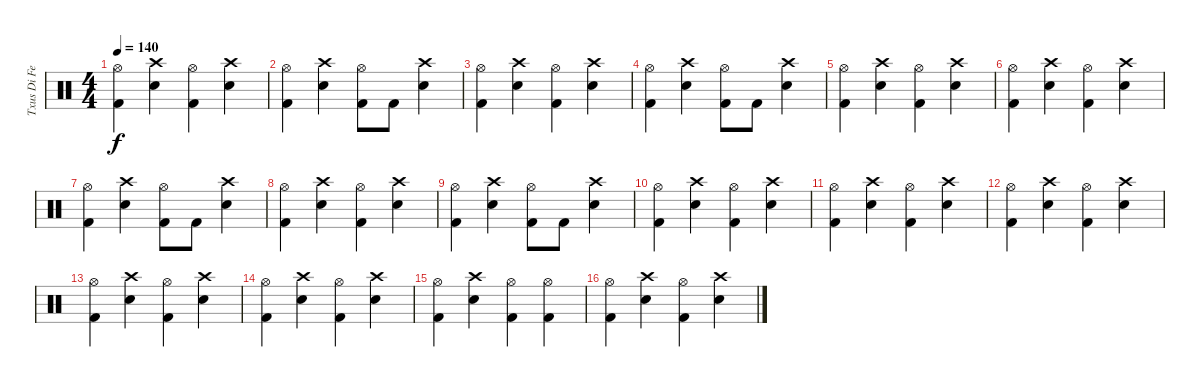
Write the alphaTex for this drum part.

\track ("Txus Di Fellatio" "Txus Di Fe") {instrument percussion}
\staff {score}
\articulation defaults
\ts (4 4)
\tempo 140
\clef neutral
\ks c
("Hi-Hat (open)" "Kick (hit) 2").4{dy f} ("Crash high (hit)" "Electric Snare (hit)").4 ("Hi-Hat (open)" "Kick (hit) 2").4 ("Crash high (hit)" "Electric Snare (hit)").4 |
("Hi-Hat (open)" "Kick (hit) 2").4 ("Crash high (hit)" "Electric Snare (hit)").4 ("Hi-Hat (open)" "Kick (hit) 2").8 "Kick (hit) 2".8 ("Crash high (hit)" "Electric Snare (hit)").4 |
("Hi-Hat (open)" "Kick (hit) 2").4 ("Crash high (hit)" "Electric Snare (hit)").4 ("Hi-Hat (open)" "Kick (hit) 2").4 ("Crash high (hit)" "Electric Snare (hit)").4 |
("Hi-Hat (open)" "Kick (hit) 2").4 ("Crash high (hit)" "Electric Snare (hit)").4 ("Hi-Hat (open)" "Kick (hit) 2").8 "Kick (hit) 2".8 ("Crash high (hit)" "Electric Snare (hit)").4 |
("Hi-Hat (open)" "Kick (hit) 2").4 ("Crash high (hit)" "Electric Snare (hit)").4 ("Hi-Hat (open)" "Kick (hit) 2").4 ("Crash high (hit)" "Electric Snare (hit)").4 |
("Hi-Hat (open)" "Kick (hit) 2").4 ("Crash high (hit)" "Electric Snare (hit)").4 ("Hi-Hat (open)" "Kick (hit) 2").4 ("Crash high (hit)" "Electric Snare (hit)").4 |
("Hi-Hat (open)" "Kick (hit) 2").4 ("Crash high (hit)" "Electric Snare (hit)").4 ("Hi-Hat (open)" "Kick (hit) 2").8 "Kick (hit) 2".8 ("Crash high (hit)" "Electric Snare (hit)").4 |
("Hi-Hat (open)" "Kick (hit) 2").4 ("Crash high (hit)" "Electric Snare (hit)").4 ("Hi-Hat (open)" "Kick (hit) 2").4 ("Crash high (hit)" "Electric Snare (hit)").4 |
("Hi-Hat (open)" "Kick (hit) 2").4 ("Crash high (hit)" "Electric Snare (hit)").4 ("Hi-Hat (open)" "Kick (hit) 2").8 "Kick (hit) 2".8 ("Crash high (hit)" "Electric Snare (hit)").4 |
("Hi-Hat (open)" "Kick (hit) 2").4 ("Crash high (hit)" "Electric Snare (hit)").4 ("Hi-Hat (open)" "Kick (hit) 2").4 ("Crash high (hit)" "Electric Snare (hit)").4 |
("Hi-Hat (open)" "Kick (hit) 2").4 ("Crash high (hit)" "Electric Snare (hit)").4 ("Hi-Hat (open)" "Kick (hit) 2").4 ("Crash high (hit)" "Electric Snare (hit)").4 |
("Hi-Hat (open)" "Kick (hit) 2").4 ("Crash high (hit)" "Electric Snare (hit)").4 ("Hi-Hat (open)" "Kick (hit) 2").4 ("Crash high (hit)" "Electric Snare (hit)").4 |
("Hi-Hat (open)" "Kick (hit) 2").4 ("Crash high (hit)" "Electric Snare (hit)").4 ("Hi-Hat (open)" "Kick (hit) 2").4 ("Crash high (hit)" "Electric Snare (hit)").4 |
("Hi-Hat (open)" "Kick (hit) 2").4 ("Crash high (hit)" "Electric Snare (hit)").4 ("Hi-Hat (open)" "Kick (hit) 2").4 ("Crash high (hit)" "Electric Snare (hit)").4 |
("Hi-Hat (open)" "Kick (hit) 2").4 ("Crash high (hit)" "Electric Snare (hit)").4 ("Hi-Hat (open)" "Kick (hit) 2").4 ("Hi-Hat (open)" "Kick (hit) 2").4 |
("Hi-Hat (open)" "Kick (hit) 2").4 ("Crash high (hit)" "Electric Snare (hit)").4 ("Hi-Hat (open)" "Kick (hit) 2").4 ("Crash high (hit)" "Electric Snare (hit)").4
